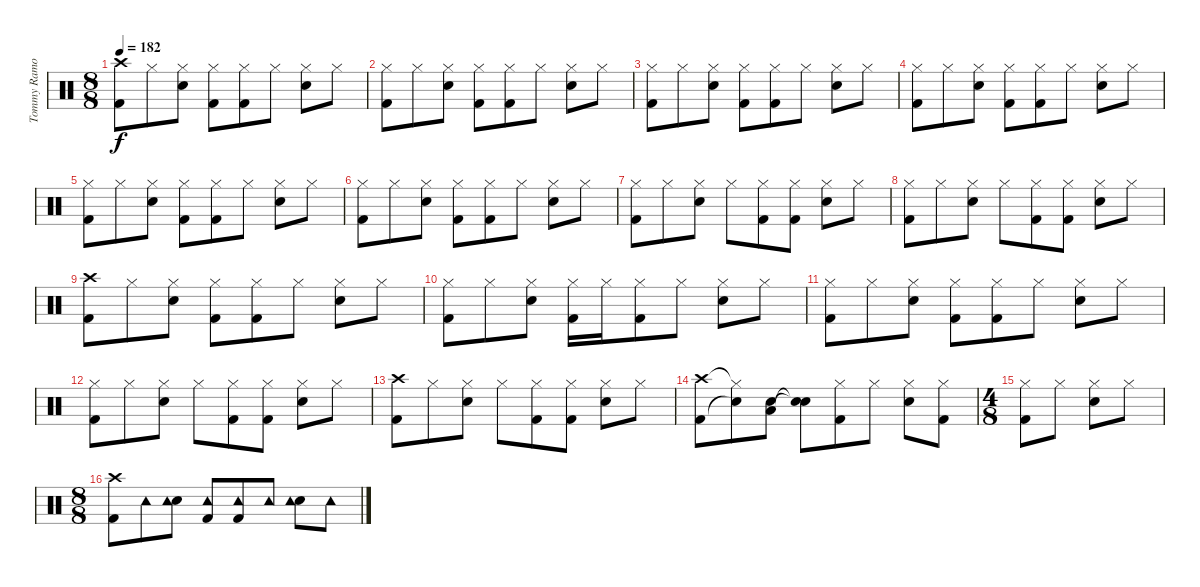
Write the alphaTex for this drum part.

\track ("Tommy Ramone - Drums" "Tommy Ramo") {instrument percussion}
\staff {score}
\articulation defaults
\ts (8 8)
\tempo 182
\clef neutral
\ks c
("Kick (hit) 2" "Crash high (hit)").8{dy f} "Hi-Hat (closed)".8 ("Snare (hit) 2" "Hi-Hat (closed)").8 ("Kick (hit) 2" "Hi-Hat (closed)").8 ("Kick (hit) 2" "Hi-Hat (closed)").8 "Hi-Hat (closed)".8 ("Snare (hit) 2" "Hi-Hat (closed)").8 "Hi-Hat (closed)".8 |
("Kick (hit) 2" "Hi-Hat (closed)").8 "Hi-Hat (closed)".8 ("Snare (hit) 2" "Hi-Hat (closed)").8 ("Kick (hit) 2" "Hi-Hat (closed)").8 ("Kick (hit) 2" "Hi-Hat (closed)").8 "Hi-Hat (closed)".8 ("Snare (hit) 2" "Hi-Hat (closed)").8 "Hi-Hat (closed)".8 |
("Kick (hit) 2" "Hi-Hat (closed)").8 "Hi-Hat (closed)".8 ("Snare (hit) 2" "Hi-Hat (closed)").8 ("Kick (hit) 2" "Hi-Hat (closed)").8 ("Kick (hit) 2" "Hi-Hat (closed)").8 "Hi-Hat (closed)".8 ("Snare (hit) 2" "Hi-Hat (closed)").8 "Hi-Hat (closed)".8 |
("Kick (hit) 2" "Hi-Hat (closed)").8 "Hi-Hat (closed)".8 ("Snare (hit) 2" "Hi-Hat (closed)").8 ("Kick (hit) 2" "Hi-Hat (closed)").8 ("Kick (hit) 2" "Hi-Hat (closed)").8 "Hi-Hat (closed)".8 ("Snare (hit) 2" "Hi-Hat (closed)").8 "Hi-Hat (closed)".8 |
("Kick (hit) 2" "Hi-Hat (closed)").8 "Hi-Hat (closed)".8 ("Snare (hit) 2" "Hi-Hat (closed)").8 ("Kick (hit) 2" "Hi-Hat (closed)").8 ("Kick (hit) 2" "Hi-Hat (closed)").8 "Hi-Hat (closed)".8 ("Snare (hit) 2" "Hi-Hat (closed)").8 "Hi-Hat (closed)".8 |
("Kick (hit) 2" "Hi-Hat (closed)").8 "Hi-Hat (closed)".8 ("Snare (hit) 2" "Hi-Hat (closed)").8 ("Kick (hit) 2" "Hi-Hat (closed)").8 ("Kick (hit) 2" "Hi-Hat (closed)").8 "Hi-Hat (closed)".8 ("Snare (hit) 2" "Hi-Hat (closed)").8 "Hi-Hat (closed)".8 |
("Kick (hit) 2" "Hi-Hat (closed)").8 "Hi-Hat (closed)".8 ("Snare (hit) 2" "Hi-Hat (closed)").8 "Hi-Hat (closed)".8 ("Kick (hit) 2" "Hi-Hat (closed)").8 ("Kick (hit) 2" "Hi-Hat (closed)").8 ("Snare (hit) 2" "Hi-Hat (closed)").8 "Hi-Hat (closed)".8 |
("Kick (hit) 2" "Hi-Hat (closed)").8 "Hi-Hat (closed)".8 ("Snare (hit) 2" "Hi-Hat (closed)").8 "Hi-Hat (closed)".8 ("Kick (hit) 2" "Hi-Hat (closed)").8 ("Kick (hit) 2" "Hi-Hat (closed)").8 ("Snare (hit) 2" "Hi-Hat (closed)").8 "Hi-Hat (closed)".8 |
("Kick (hit) 2" "Crash high (hit)").8 "Hi-Hat (closed)".8 ("Snare (hit) 2" "Hi-Hat (closed)").8 ("Kick (hit) 2" "Hi-Hat (closed)").8 ("Kick (hit) 2" "Hi-Hat (closed)").8 "Hi-Hat (closed)".8 ("Snare (hit) 2" "Hi-Hat (closed)").8 "Hi-Hat (closed)".8 |
("Kick (hit) 2" "Hi-Hat (closed)").8 "Hi-Hat (closed)".8 ("Snare (hit) 2" "Hi-Hat (closed)").8 ("Kick (hit) 2" "Hi-Hat (closed)").16 "Hi-Hat (closed)".16 ("Kick (hit) 2" "Hi-Hat (closed)").8 "Hi-Hat (closed)".8 ("Snare (hit) 2" "Hi-Hat (closed)").8 "Hi-Hat (closed)".8 |
("Kick (hit) 2" "Hi-Hat (closed)").8 "Hi-Hat (closed)".8 ("Snare (hit) 2" "Hi-Hat (closed)").8 ("Kick (hit) 2" "Hi-Hat (closed)").8 ("Kick (hit) 2" "Hi-Hat (closed)").8 "Hi-Hat (closed)".8 ("Snare (hit) 2" "Hi-Hat (closed)").8 "Hi-Hat (closed)".8 |
("Kick (hit) 2" "Hi-Hat (closed)").8 "Hi-Hat (closed)".8 ("Snare (hit) 2" "Hi-Hat (closed)").8 "Hi-Hat (closed)".8 ("Kick (hit) 2" "Hi-Hat (closed)").8 ("Kick (hit) 2" "Hi-Hat (closed)").8 ("Snare (hit) 2" "Hi-Hat (closed)").8 "Hi-Hat (closed)".8 |
("Kick (hit) 2" "Crash high (hit)").8 "Hi-Hat (closed)".8 ("Snare (hit) 2" "Hi-Hat (closed)").8 "Hi-Hat (closed)".8 ("Kick (hit) 2" "Hi-Hat (closed)").8 ("Kick (hit) 2" "Hi-Hat (closed)").8 ("Snare (hit) 2" "Hi-Hat (closed)").8 "Hi-Hat (closed)".8 |
("Kick (hit) 2" "Crash high (hit)").8 ("Snare (hit)"{t} "Hi-Hat (closed)"{t}).8 ("Snare (hit) 2" "Low Floor Tom (hit)").8 ("Snare (hit)"{t} "Electric Snare (hit)"{t}).8 ("Kick (hit) 2" "Hi-Hat (closed)").8 "Hi-Hat (closed)".8 ("Snare (hit) 2" "Hi-Hat (closed)").8 ("Kick (hit) 2" "Hi-Hat (closed)").8 |
\ts (4 8)
("Kick (hit) 2" "Hi-Hat (closed)").8 "Hi-Hat (closed)".8 ("Snare (hit) 2" "Hi-Hat (closed)").8 "Hi-Hat (closed)".8 |
\ts (8 8)
("Kick (hit) 2" "Crash high (hit)").8 "Tambourine (hit)".8 ("Snare (hit) 2" "Tambourine (hit)").8 ("Kick (hit) 2" "Tambourine (hit)").8 ("Kick (hit) 2" "Tambourine (hit)").8 "Tambourine (hit)".8 ("Snare (hit) 2" "Tambourine (hit)").8 "Tambourine (hit)".8
